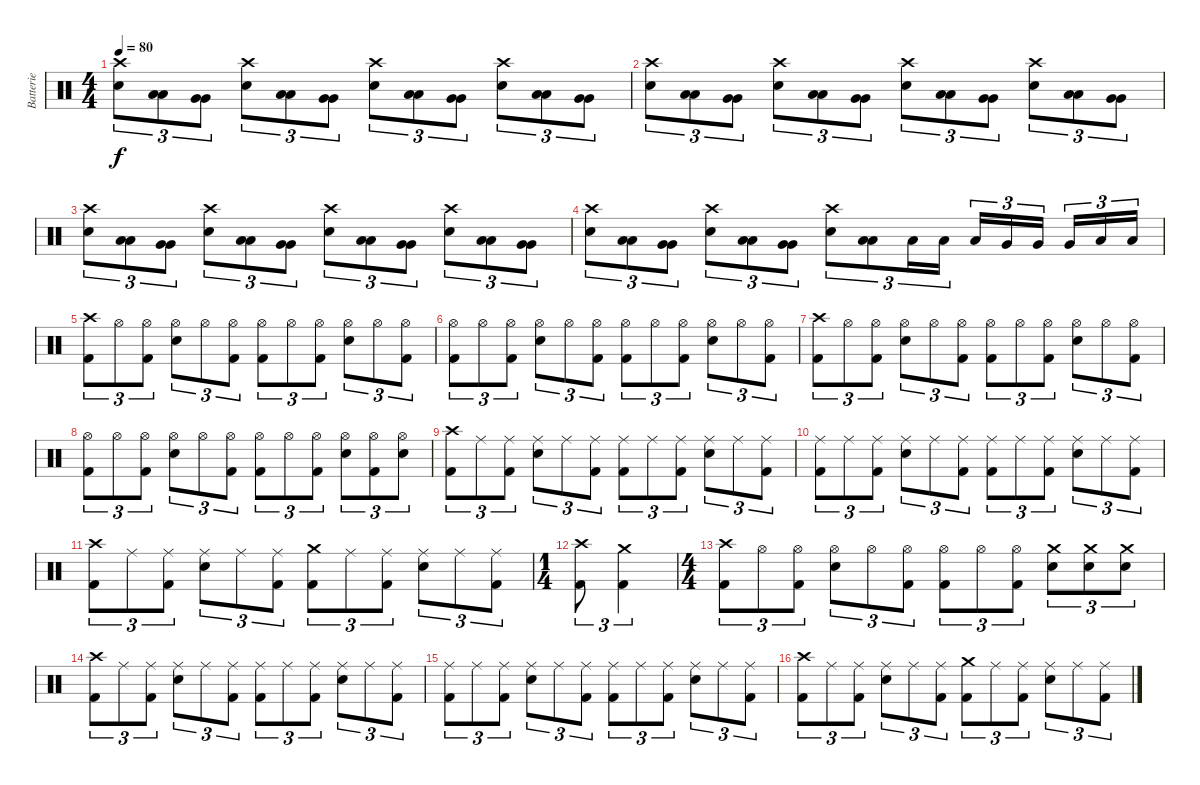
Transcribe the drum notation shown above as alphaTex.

\track ("Batterie" "Batterie") {instrument percussion}
\staff {score}
\articulation defaults
\ts (4 4)
\tempo 80
\clef neutral
\ks c
("Crash high (hit)" "Electric Snare (hit)").8{tu (3 2) dy f} ("Low Tom (hit)" "Low Tom (hit)").8{tu (3 2) bu 60} ("Very Low Tom (hit)" "Very Low Tom (hit)").8{tu (3 2) bu 60} ("Crash high (hit)" "Electric Snare (hit)").8{tu (3 2)} ("Low Tom (hit)" "Low Tom (hit)").8{tu (3 2) bu 60} ("Very Low Tom (hit)" "Very Low Tom (hit)").8{tu (3 2) bu 60} ("Crash high (hit)" "Electric Snare (hit)").8{tu (3 2)} ("Low Tom (hit)" "Low Tom (hit)").8{tu (3 2) bu 60} ("Very Low Tom (hit)" "Very Low Tom (hit)").8{tu (3 2) bu 60} ("Crash high (hit)" "Electric Snare (hit)").8{tu (3 2)} ("Low Tom (hit)" "Low Tom (hit)").8{tu (3 2) bu 60} ("Very Low Tom (hit)" "Very Low Tom (hit)").8{tu (3 2) bu 60} |
("Crash high (hit)" "Electric Snare (hit)").8{tu (3 2)} ("Low Tom (hit)" "Low Tom (hit)").8{tu (3 2) bu 60} ("Very Low Tom (hit)" "Very Low Tom (hit)").8{tu (3 2) bu 60} ("Crash high (hit)" "Electric Snare (hit)").8{tu (3 2)} ("Low Tom (hit)" "Low Tom (hit)").8{tu (3 2) bu 60} ("Very Low Tom (hit)" "Very Low Tom (hit)").8{tu (3 2) bu 60} ("Crash high (hit)" "Electric Snare (hit)").8{tu (3 2)} ("Low Tom (hit)" "Low Tom (hit)").8{tu (3 2) bu 60} ("Very Low Tom (hit)" "Very Low Tom (hit)").8{tu (3 2) bu 60} ("Crash high (hit)" "Electric Snare (hit)").8{tu (3 2)} ("Low Tom (hit)" "Low Tom (hit)").8{tu (3 2) bu 60} ("Very Low Tom (hit)" "Very Low Tom (hit)").8{tu (3 2) bu 60} |
("Crash high (hit)" "Electric Snare (hit)").8{tu (3 2)} ("Low Tom (hit)" "Low Tom (hit)").8{tu (3 2) bu 60} ("Very Low Tom (hit)" "Very Low Tom (hit)").8{tu (3 2) bu 60} ("Crash high (hit)" "Electric Snare (hit)").8{tu (3 2)} ("Low Tom (hit)" "Low Tom (hit)").8{tu (3 2) bu 60} ("Very Low Tom (hit)" "Very Low Tom (hit)").8{tu (3 2) bu 60} ("Crash high (hit)" "Electric Snare (hit)").8{tu (3 2)} ("Low Tom (hit)" "Low Tom (hit)").8{tu (3 2) bu 60} ("Very Low Tom (hit)" "Very Low Tom (hit)").8{tu (3 2) bu 60} ("Crash high (hit)" "Electric Snare (hit)").8{tu (3 2)} ("Low Tom (hit)" "Low Tom (hit)").8{tu (3 2) bu 60} ("Very Low Tom (hit)" "Very Low Tom (hit)").8{tu (3 2) bu 60} |
("Crash high (hit)" "Electric Snare (hit)").8{tu (3 2)} ("Low Tom (hit)" "Low Tom (hit)").8{tu (3 2) bu 60} ("Very Low Tom (hit)" "Very Low Tom (hit)").8{tu (3 2) bu 60} ("Crash high (hit)" "Electric Snare (hit)").8{tu (3 2)} ("Low Tom (hit)" "Low Tom (hit)").8{tu (3 2) bu 60} ("Very Low Tom (hit)" "Very Low Tom (hit)").8{tu (3 2) bu 60} ("Crash high (hit)" "Electric Snare (hit)").8{tu (3 2)} ("Low Tom (hit)" "Low Tom (hit)").8{tu (3 2) bu 60} "Low Tom (hit)".16{tu (3 2)} "Low Tom (hit)".16{tu (3 2)} "Low Tom (hit)".16{tu (3 2)} "Very Low Tom (hit)".16{tu (3 2)} "Very Low Tom (hit)".16{tu (3 2)} "Very Low Tom (hit)".16{tu (3 2)} "Low Floor Tom (hit)".16{tu (3 2)} "Low Floor Tom (hit)".16{tu (3 2)} |
("Crash high (hit)" "Kick (hit) 2").8{tu (3 2)} "Hi-Hat (open)".8{tu (3 2)} ("Hi-Hat (open)" "Kick (hit) 2").8{tu (3 2)} ("Hi-Hat (open)" "Electric Snare (hit)").8{tu (3 2)} "Hi-Hat (open)".8{tu (3 2)} ("Hi-Hat (open)" "Kick (hit) 2").8{tu (3 2)} ("Hi-Hat (open)" "Kick (hit) 2").8{tu (3 2)} "Hi-Hat (open)".8{tu (3 2)} ("Hi-Hat (open)" "Kick (hit) 2").8{tu (3 2)} ("Hi-Hat (open)" "Electric Snare (hit)").8{tu (3 2)} "Hi-Hat (open)".8{tu (3 2)} ("Hi-Hat (open)" "Kick (hit) 2").8{tu (3 2)} |
("Hi-Hat (open)" "Kick (hit) 2").8{tu (3 2)} "Hi-Hat (open)".8{tu (3 2)} ("Hi-Hat (open)" "Kick (hit) 2").8{tu (3 2)} ("Hi-Hat (open)" "Electric Snare (hit)").8{tu (3 2)} "Hi-Hat (open)".8{tu (3 2)} ("Hi-Hat (open)" "Kick (hit) 2").8{tu (3 2)} ("Hi-Hat (open)" "Kick (hit) 2").8{tu (3 2)} "Hi-Hat (open)".8{tu (3 2)} ("Hi-Hat (open)" "Kick (hit) 2").8{tu (3 2)} ("Hi-Hat (open)" "Electric Snare (hit)").8{tu (3 2)} "Hi-Hat (open)".8{tu (3 2)} ("Hi-Hat (open)" "Kick (hit) 2").8{tu (3 2)} |
("Crash high (hit)" "Kick (hit) 2").8{tu (3 2)} "Hi-Hat (open)".8{tu (3 2)} ("Hi-Hat (open)" "Kick (hit) 2").8{tu (3 2)} ("Hi-Hat (open)" "Electric Snare (hit)").8{tu (3 2)} "Hi-Hat (open)".8{tu (3 2)} ("Hi-Hat (open)" "Kick (hit) 2").8{tu (3 2)} ("Hi-Hat (open)" "Kick (hit) 2").8{tu (3 2)} "Hi-Hat (open)".8{tu (3 2)} ("Hi-Hat (open)" "Kick (hit) 2").8{tu (3 2)} ("Hi-Hat (open)" "Electric Snare (hit)").8{tu (3 2)} "Hi-Hat (open)".8{tu (3 2)} ("Hi-Hat (open)" "Kick (hit) 2").8{tu (3 2)} |
("Hi-Hat (open)" "Kick (hit) 2").8{tu (3 2)} "Hi-Hat (open)".8{tu (3 2)} ("Hi-Hat (open)" "Kick (hit) 2").8{tu (3 2)} ("Hi-Hat (open)" "Electric Snare (hit)").8{tu (3 2)} "Hi-Hat (open)".8{tu (3 2)} ("Hi-Hat (open)" "Kick (hit) 2").8{tu (3 2)} ("Hi-Hat (open)" "Kick (hit) 2").8{tu (3 2)} "Hi-Hat (open)".8{tu (3 2)} ("Hi-Hat (open)" "Kick (hit) 2").8{tu (3 2)} ("Hi-Hat (open)" "Electric Snare (hit)").8{tu (3 2)} ("Hi-Hat (open)" "Kick (hit) 2").8{tu (3 2)} ("Hi-Hat (open)" "Electric Snare (hit)").8{tu (3 2)} |
("Crash high (hit)" "Kick (hit) 2").8{tu (3 2)} "Ride (middle)".8{tu (3 2)} ("Ride (middle)" "Kick (hit) 2").8{tu (3 2)} ("Ride (middle)" "Electric Snare (hit)").8{tu (3 2)} "Ride (middle)".8{tu (3 2)} ("Ride (middle)" "Kick (hit) 2").8{tu (3 2)} ("Ride (middle)" "Kick (hit) 2").8{tu (3 2)} "Ride (middle)".8{tu (3 2)} ("Ride (middle)" "Kick (hit) 2").8{tu (3 2)} ("Ride (middle)" "Electric Snare (hit)").8{tu (3 2)} "Ride (middle)".8{tu (3 2)} ("Ride (middle)" "Kick (hit) 2").8{tu (3 2)} |
("Ride (middle)" "Kick (hit) 2").8{tu (3 2)} "Ride (middle)".8{tu (3 2)} ("Ride (middle)" "Kick (hit) 2").8{tu (3 2)} ("Ride (middle)" "Electric Snare (hit)").8{tu (3 2)} "Ride (middle)".8{tu (3 2)} ("Ride (middle)" "Kick (hit) 2").8{tu (3 2)} ("Ride (middle)" "Kick (hit) 2").8{tu (3 2)} "Ride (middle)".8{tu (3 2)} ("Ride (middle)" "Kick (hit) 2").8{tu (3 2)} ("Ride (middle)" "Electric Snare (hit)").8{tu (3 2)} "Ride (middle)".8{tu (3 2)} ("Ride (middle)" "Kick (hit) 2").8{tu (3 2)} |
("Crash high (hit)" "Kick (hit) 2").8{tu (3 2)} "Ride (middle)".8{tu (3 2)} ("Ride (middle)" "Kick (hit) 2").8{tu (3 2)} ("Ride (middle)" "Electric Snare (hit)").8{tu (3 2)} "Ride (middle)".8{tu (3 2)} ("Ride (middle)" "Kick (hit) 2").8{tu (3 2)} ("Crash medium (hit)" "Kick (hit) 2").8{tu (3 2)} "Ride (middle)".8{tu (3 2)} ("Ride (middle)" "Kick (hit) 2").8{tu (3 2)} ("Ride (middle)" "Electric Snare (hit)").8{tu (3 2)} "Ride (middle)".8{tu (3 2)} ("Ride (middle)" "Kick (hit) 2").8{tu (3 2)} |
\ts (1 4)
("Crash high (hit)" "Kick (hit) 2").8{tu (3 2)} ("Crash medium (hit)" "Kick (hit) 2").4{tu (3 2)} |
\ts (4 4)
("Crash high (hit)" "Kick (hit) 2").8{tu (3 2)} "Hi-Hat (open)".8{tu (3 2)} ("Hi-Hat (open)" "Kick (hit) 2").8{tu (3 2)} ("Hi-Hat (open)" "Electric Snare (hit)").8{tu (3 2)} "Hi-Hat (open)".8{tu (3 2)} ("Hi-Hat (open)" "Kick (hit) 2").8{tu (3 2)} ("Hi-Hat (open)" "Kick (hit) 2").8{tu (3 2)} "Hi-Hat (open)".8{tu (3 2)} ("Hi-Hat (open)" "Kick (hit) 2").8{tu (3 2)} ("Crash medium (hit)" "Electric Snare (hit)").8{tu (3 2)} ("Crash medium (hit)" "Electric Snare (hit)").8{tu (3 2)} ("Crash medium (hit)" "Electric Snare (hit)").8{tu (3 2)} |
("Crash high (hit)" "Kick (hit) 2").8{tu (3 2)} "Ride (middle)".8{tu (3 2)} ("Ride (middle)" "Kick (hit) 2").8{tu (3 2)} ("Ride (middle)" "Electric Snare (hit)").8{tu (3 2)} "Ride (middle)".8{tu (3 2)} ("Ride (middle)" "Kick (hit) 2").8{tu (3 2)} ("Ride (middle)" "Kick (hit) 2").8{tu (3 2)} "Ride (middle)".8{tu (3 2)} ("Ride (middle)" "Kick (hit) 2").8{tu (3 2)} ("Ride (middle)" "Electric Snare (hit)").8{tu (3 2)} "Ride (middle)".8{tu (3 2)} ("Ride (middle)" "Kick (hit) 2").8{tu (3 2)} |
("Ride (middle)" "Kick (hit) 2").8{tu (3 2)} "Ride (middle)".8{tu (3 2)} ("Ride (middle)" "Kick (hit) 2").8{tu (3 2)} ("Ride (middle)" "Electric Snare (hit)").8{tu (3 2)} "Ride (middle)".8{tu (3 2)} ("Ride (middle)" "Kick (hit) 2").8{tu (3 2)} ("Ride (middle)" "Kick (hit) 2").8{tu (3 2)} "Ride (middle)".8{tu (3 2)} ("Ride (middle)" "Kick (hit) 2").8{tu (3 2)} ("Ride (middle)" "Electric Snare (hit)").8{tu (3 2)} "Ride (middle)".8{tu (3 2)} ("Ride (middle)" "Kick (hit) 2").8{tu (3 2)} |
("Crash high (hit)" "Kick (hit) 2").8{tu (3 2)} "Ride (middle)".8{tu (3 2)} ("Ride (middle)" "Kick (hit) 2").8{tu (3 2)} ("Ride (middle)" "Electric Snare (hit)").8{tu (3 2)} "Ride (middle)".8{tu (3 2)} ("Ride (middle)" "Kick (hit) 2").8{tu (3 2)} ("Crash medium (hit)" "Kick (hit) 2").8{tu (3 2)} "Ride (middle)".8{tu (3 2)} ("Ride (middle)" "Kick (hit) 2").8{tu (3 2)} ("Ride (middle)" "Electric Snare (hit)").8{tu (3 2)} "Ride (middle)".8{tu (3 2)} ("Ride (middle)" "Kick (hit) 2").8{tu (3 2)}
